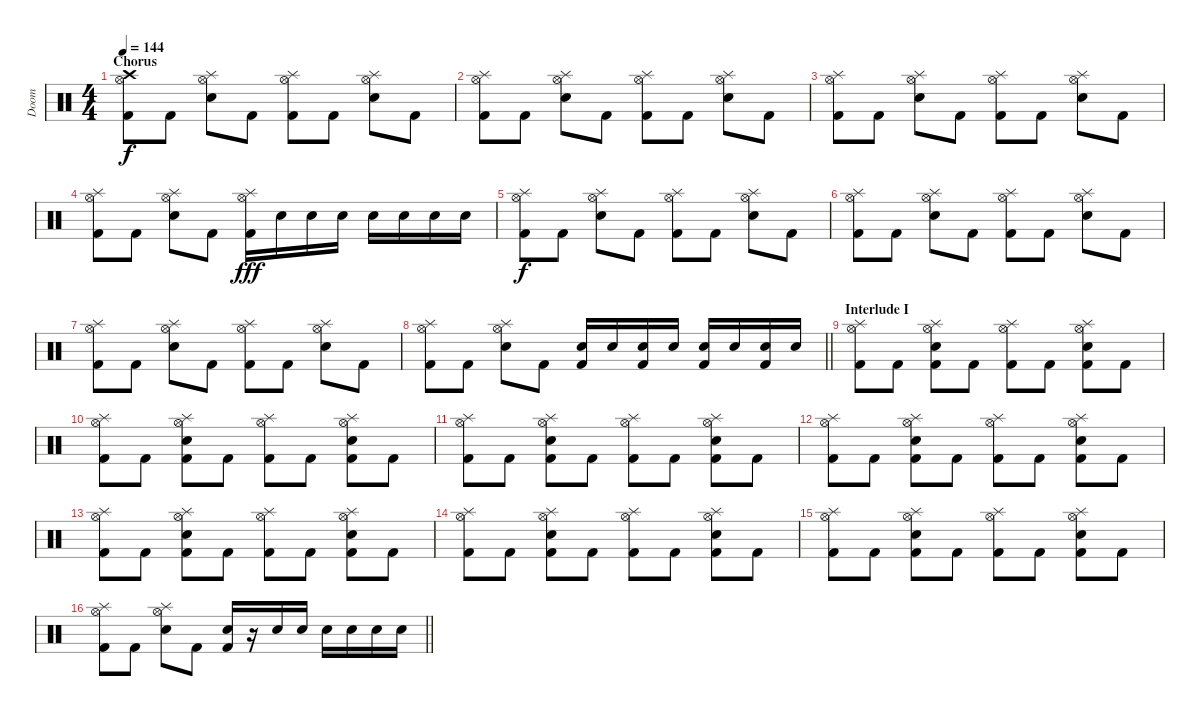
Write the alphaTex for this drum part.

\track ("Doom" "Doom") {instrument percussion}
\staff {score}
\articulation defaults
\ts (4 4)
\section ("" "Chorus")
\tempo 144
\clef neutral
\ks c
("Kick (hit) 2" "Hi-Hat (open)" "Crash high (hit)").8{dy f} "Kick (hit) 2".8 ("Snare (hit) 2" "Hi-Hat (open)" "Splash (hit)").8 "Kick (hit) 2".8 ("Kick (hit) 2" "Hi-Hat (open)" "Splash (hit)").8 "Kick (hit) 2".8 ("Snare (hit) 2" "Hi-Hat (open)" "Splash (hit)").8 "Kick (hit) 2".8 |
("Kick (hit) 2" "Hi-Hat (open)" "Splash (hit)").8 "Kick (hit) 2".8 ("Snare (hit) 2" "Hi-Hat (open)" "Splash (hit)").8 "Kick (hit) 2".8 ("Kick (hit) 2" "Hi-Hat (open)" "Splash (hit)").8 "Kick (hit) 2".8 ("Snare (hit) 2" "Hi-Hat (open)" "Splash (hit)").8 "Kick (hit) 2".8 |
("Kick (hit) 2" "Hi-Hat (open)" "Splash (hit)").8 "Kick (hit) 2".8 ("Snare (hit) 2" "Hi-Hat (open)" "Splash (hit)").8 "Kick (hit) 2".8 ("Kick (hit) 2" "Hi-Hat (open)" "Splash (hit)").8 "Kick (hit) 2".8 ("Snare (hit) 2" "Hi-Hat (open)" "Splash (hit)").8 "Kick (hit) 2".8 |
("Kick (hit) 2" "Hi-Hat (open)" "Splash (hit)").8 "Kick (hit) 2".8 ("Snare (hit) 2" "Hi-Hat (open)" "Splash (hit)").8 "Kick (hit) 2".8 ("Kick (hit) 2" "Hi-Hat (open)" "Splash (hit)").16{dy fff} "Snare (hit) 2".16 "Snare (hit) 2".16 "Snare (hit) 2".16 "Snare (hit) 2".16 "Snare (hit) 2".16 "Snare (hit) 2".16 "Snare (hit) 2".16 |
("Kick (hit) 2" "Hi-Hat (open)" "Splash (hit)").8{dy f} "Kick (hit) 2".8 ("Snare (hit) 2" "Hi-Hat (open)" "Splash (hit)").8 "Kick (hit) 2".8 ("Kick (hit) 2" "Hi-Hat (open)" "Splash (hit)").8 "Kick (hit) 2".8 ("Snare (hit) 2" "Hi-Hat (open)" "Splash (hit)").8 "Kick (hit) 2".8 |
("Kick (hit) 2" "Hi-Hat (open)" "Splash (hit)").8 "Kick (hit) 2".8 ("Snare (hit) 2" "Hi-Hat (open)" "Splash (hit)").8 "Kick (hit) 2".8 ("Kick (hit) 2" "Hi-Hat (open)" "Splash (hit)").8 "Kick (hit) 2".8 ("Snare (hit) 2" "Hi-Hat (open)" "Splash (hit)").8 "Kick (hit) 2".8 |
("Kick (hit) 2" "Hi-Hat (open)" "Splash (hit)").8 "Kick (hit) 2".8 ("Snare (hit) 2" "Hi-Hat (open)" "Splash (hit)").8 "Kick (hit) 2".8 ("Kick (hit) 2" "Hi-Hat (open)" "Splash (hit)").8 "Kick (hit) 2".8 ("Snare (hit) 2" "Hi-Hat (open)" "Splash (hit)").8 "Kick (hit) 2".8 |
\barLineRight lightlight
("Kick (hit) 2" "Hi-Hat (open)" "Splash (hit)").8 "Kick (hit) 2".8 ("Snare (hit) 2" "Hi-Hat (open)" "Splash (hit)").8 "Kick (hit) 2".8 ("Snare (hit) 2" "Kick (hit) 2").16 "Snare (hit) 2".16 ("Kick (hit) 2" "Snare (hit) 2").16 "Snare (hit) 2".16 ("Snare (hit) 2" "Kick (hit) 2").16 "Snare (hit) 2".16 ("Snare (hit) 2" "Kick (hit) 2").16 "Snare (hit) 2".16 |
\section ("" "Interlude I")
("Kick (hit) 2" "Hi-Hat (open)" "Splash (hit)").8 "Kick (hit) 2".8 ("Snare (hit) 2" "Hi-Hat (open)" "Splash (hit)" "Kick (hit) 2").8 "Kick (hit) 2".8 ("Kick (hit) 2" "Hi-Hat (open)" "Splash (hit)").8 "Kick (hit) 2".8 ("Snare (hit) 2" "Hi-Hat (open)" "Splash (hit)" "Kick (hit) 2").8 "Kick (hit) 2".8 |
("Kick (hit) 2" "Hi-Hat (open)" "Splash (hit)").8 "Kick (hit) 2".8 ("Snare (hit) 2" "Hi-Hat (open)" "Splash (hit)" "Kick (hit) 2").8 "Kick (hit) 2".8 ("Kick (hit) 2" "Hi-Hat (open)" "Splash (hit)").8 "Kick (hit) 2".8 ("Snare (hit) 2" "Hi-Hat (open)" "Splash (hit)" "Kick (hit) 2").8 "Kick (hit) 2".8 |
("Kick (hit) 2" "Hi-Hat (open)" "Splash (hit)").8 "Kick (hit) 2".8 ("Snare (hit) 2" "Hi-Hat (open)" "Splash (hit)" "Kick (hit) 2").8 "Kick (hit) 2".8 ("Kick (hit) 2" "Hi-Hat (open)" "Splash (hit)").8 "Kick (hit) 2".8 ("Snare (hit) 2" "Hi-Hat (open)" "Splash (hit)" "Kick (hit) 2").8 "Kick (hit) 2".8 |
("Kick (hit) 2" "Hi-Hat (open)" "Splash (hit)").8 "Kick (hit) 2".8 ("Snare (hit) 2" "Hi-Hat (open)" "Splash (hit)" "Kick (hit) 2").8 "Kick (hit) 2".8 ("Kick (hit) 2" "Hi-Hat (open)" "Splash (hit)").8 "Kick (hit) 2".8 ("Snare (hit) 2" "Hi-Hat (open)" "Splash (hit)" "Kick (hit) 2").8 "Kick (hit) 2".8 |
("Kick (hit) 2" "Hi-Hat (open)" "Splash (hit)").8 "Kick (hit) 2".8 ("Snare (hit) 2" "Hi-Hat (open)" "Splash (hit)" "Kick (hit) 2").8 "Kick (hit) 2".8 ("Kick (hit) 2" "Hi-Hat (open)" "Splash (hit)").8 "Kick (hit) 2".8 ("Snare (hit) 2" "Hi-Hat (open)" "Splash (hit)" "Kick (hit) 2").8 "Kick (hit) 2".8 |
("Kick (hit) 2" "Hi-Hat (open)" "Splash (hit)").8 "Kick (hit) 2".8 ("Snare (hit) 2" "Hi-Hat (open)" "Splash (hit)" "Kick (hit) 2").8 "Kick (hit) 2".8 ("Kick (hit) 2" "Hi-Hat (open)" "Splash (hit)").8 "Kick (hit) 2".8 ("Snare (hit) 2" "Hi-Hat (open)" "Splash (hit)" "Kick (hit) 2").8 "Kick (hit) 2".8 |
("Kick (hit) 2" "Hi-Hat (open)" "Splash (hit)").8 "Kick (hit) 2".8 ("Snare (hit) 2" "Hi-Hat (open)" "Splash (hit)" "Kick (hit) 2").8 "Kick (hit) 2".8 ("Kick (hit) 2" "Hi-Hat (open)" "Splash (hit)").8 "Kick (hit) 2".8 ("Snare (hit) 2" "Hi-Hat (open)" "Splash (hit)" "Kick (hit) 2").8 "Kick (hit) 2".8 |
\barLineRight lightlight
("Kick (hit) 2" "Hi-Hat (open)" "Splash (hit)").8 "Kick (hit) 2".8 ("Snare (hit) 2" "Hi-Hat (open)" "Splash (hit)").8 "Kick (hit) 2".8 ("Snare (hit) 2" "Kick (hit) 2").16 r.16 "Snare (hit) 2".16 "Snare (hit) 2".16 "Snare (hit) 2".16 "Snare (hit) 2".16 "Snare (hit) 2".16 "Snare (hit) 2".16
